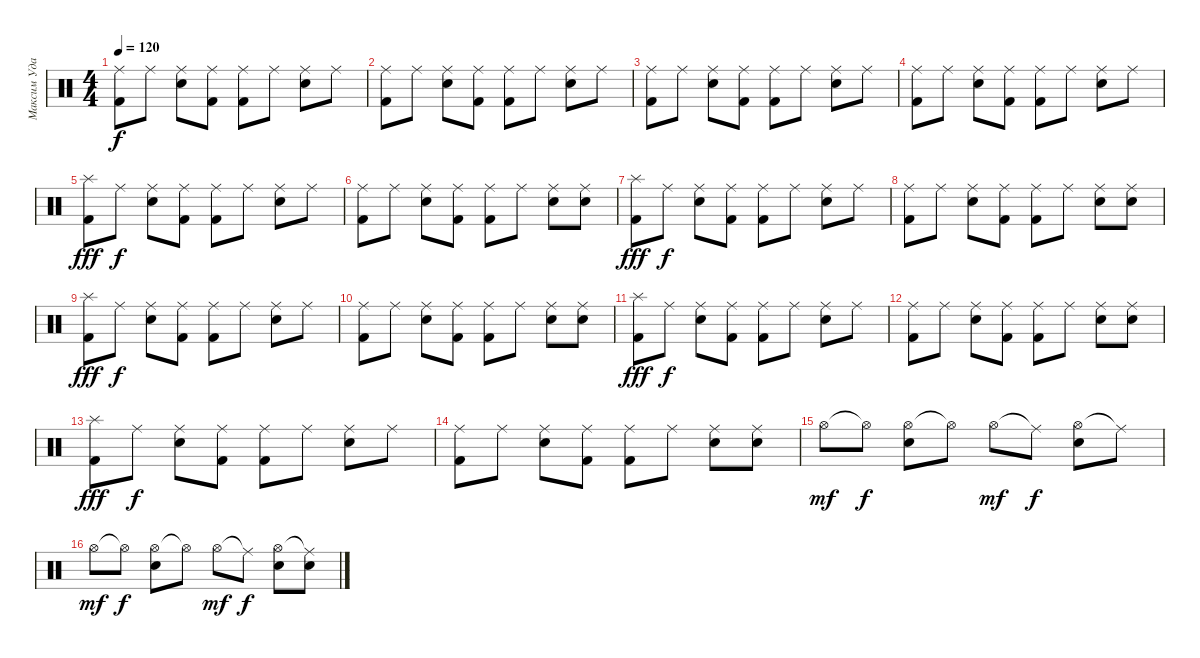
\track ("Максим Удалов" "Максим Уда") {instrument percussion}
\staff {score}
\articulation defaults
\ts (4 4)
\tempo 120
\clef neutral
\ks c
("Kick (hit) 2" "Ride (middle)").8{dy f} "Ride (middle)".8 ("Ride (middle)" "Electric Snare (hit)").8 ("Kick (hit) 2" "Ride (middle)").8 ("Kick (hit) 2" "Ride (middle)").8 "Ride (middle)".8 ("Ride (middle)" "Electric Snare (hit)").8 "Ride (middle)".8 |
("Kick (hit) 2" "Ride (middle)").8 "Ride (middle)".8 ("Ride (middle)" "Electric Snare (hit)").8 ("Kick (hit) 2" "Ride (middle)").8 ("Kick (hit) 2" "Ride (middle)").8 "Ride (middle)".8 ("Ride (middle)" "Electric Snare (hit)").8 "Ride (middle)".8 |
("Kick (hit) 2" "Ride (middle)").8 "Ride (middle)".8 ("Ride (middle)" "Electric Snare (hit)").8 ("Kick (hit) 2" "Ride (middle)").8 ("Kick (hit) 2" "Ride (middle)").8 "Ride (middle)".8 ("Ride (middle)" "Electric Snare (hit)").8 "Ride (middle)".8 |
("Kick (hit) 2" "Ride (middle)").8 "Ride (middle)".8 ("Ride (middle)" "Electric Snare (hit)").8 ("Kick (hit) 2" "Ride (middle)").8 ("Kick (hit) 2" "Ride (middle)").8 "Ride (middle)".8 ("Ride (middle)" "Electric Snare (hit)").8 "Ride (middle)".8 |
("Kick (hit) 2" "Splash (hit)").8{dy fff} "Ride (middle)".8{dy f} ("Ride (middle)" "Electric Snare (hit)").8 ("Kick (hit) 2" "Ride (middle)").8 ("Kick (hit) 2" "Ride (middle)").8 "Ride (middle)".8 ("Ride (middle)" "Electric Snare (hit)").8 "Ride (middle)".8 |
("Kick (hit) 2" "Ride (middle)").8 "Ride (middle)".8 ("Ride (middle)" "Electric Snare (hit)").8 ("Kick (hit) 2" "Ride (middle)").8 ("Kick (hit) 2" "Ride (middle)").8 "Ride (middle)".8 ("Ride (middle)" "Electric Snare (hit)").8 ("Ride (middle)" "Electric Snare (hit)").8 |
("Kick (hit) 2" "Splash (hit)").8{dy fff} "Ride (middle)".8{dy f} ("Ride (middle)" "Electric Snare (hit)").8 ("Kick (hit) 2" "Ride (middle)").8 ("Kick (hit) 2" "Ride (middle)").8 "Ride (middle)".8 ("Ride (middle)" "Electric Snare (hit)").8 "Ride (middle)".8 |
("Kick (hit) 2" "Ride (middle)").8 "Ride (middle)".8 ("Ride (middle)" "Electric Snare (hit)").8 ("Kick (hit) 2" "Ride (middle)").8 ("Kick (hit) 2" "Ride (middle)").8 "Ride (middle)".8 ("Ride (middle)" "Electric Snare (hit)").8 ("Ride (middle)" "Electric Snare (hit)").8 |
("Kick (hit) 2" "Splash (hit)").8{dy fff} "Ride (middle)".8{dy f} ("Ride (middle)" "Electric Snare (hit)").8 ("Kick (hit) 2" "Ride (middle)").8 ("Kick (hit) 2" "Ride (middle)").8 "Ride (middle)".8 ("Ride (middle)" "Electric Snare (hit)").8 "Ride (middle)".8 |
("Kick (hit) 2" "Ride (middle)").8 "Ride (middle)".8 ("Ride (middle)" "Electric Snare (hit)").8 ("Kick (hit) 2" "Ride (middle)").8 ("Kick (hit) 2" "Ride (middle)").8 "Ride (middle)".8 ("Ride (middle)" "Electric Snare (hit)").8 ("Ride (middle)" "Electric Snare (hit)").8 |
("Kick (hit) 2" "Splash (hit)").8{dy fff} "Ride (middle)".8{dy f} ("Ride (middle)" "Electric Snare (hit)").8 ("Kick (hit) 2" "Ride (middle)").8 ("Kick (hit) 2" "Ride (middle)").8 "Ride (middle)".8 ("Ride (middle)" "Electric Snare (hit)").8 "Ride (middle)".8 |
("Kick (hit) 2" "Ride (middle)").8 "Ride (middle)".8 ("Ride (middle)" "Electric Snare (hit)").8 ("Kick (hit) 2" "Ride (middle)").8 ("Kick (hit) 2" "Ride (middle)").8 "Ride (middle)".8 ("Ride (middle)" "Electric Snare (hit)").8 ("Ride (middle)" "Electric Snare (hit)").8 |
("Kick (hit) 2" "Splash (hit)").8{dy fff} "Ride (middle)".8{dy f} ("Ride (middle)" "Electric Snare (hit)").8 ("Kick (hit) 2" "Ride (middle)").8 ("Kick (hit) 2" "Ride (middle)").8 "Ride (middle)".8 ("Ride (middle)" "Electric Snare (hit)").8 "Ride (middle)".8 |
("Kick (hit) 2" "Ride (middle)").8 "Ride (middle)".8 ("Ride (middle)" "Electric Snare (hit)").8 ("Kick (hit) 2" "Ride (middle)").8 ("Kick (hit) 2" "Ride (middle)").8 "Ride (middle)".8 ("Ride (middle)" "Electric Snare (hit)").8 ("Ride (middle)" "Electric Snare (hit)").8 |
"Hi-Hat (open)".8{dy mf} "Hi-Hat (open)"{t}.8{dy f} ("Hi-Hat (open)" "Electric Snare (hit)").8 "Hi-Hat (open)"{t}.8 "Hi-Hat (open)".8{dy mf} "Ride (middle)"{t}.8{dy f} ("Hi-Hat (open)" "Electric Snare (hit)").8 "Ride (middle)"{t}.8 |
"Hi-Hat (open)".8{dy mf} "Hi-Hat (open)"{t}.8{dy f} ("Hi-Hat (open)" "Electric Snare (hit)").8 "Hi-Hat (open)"{t}.8 "Hi-Hat (open)".8{dy mf} "Ride (middle)"{t}.8{dy f} ("Hi-Hat (open)" "Electric Snare (hit)").8 ("Ride (middle)"{t} "Electric Snare (hit)").8
